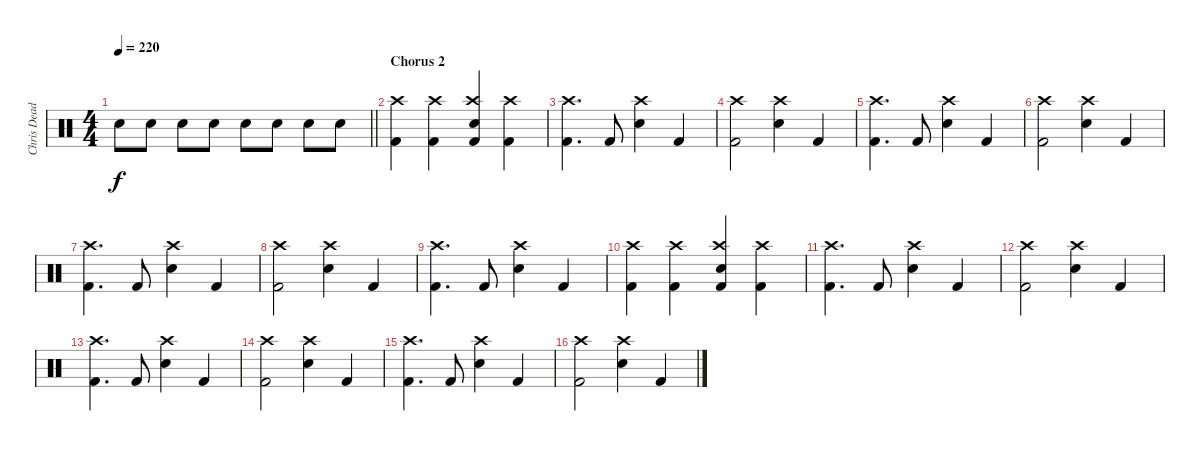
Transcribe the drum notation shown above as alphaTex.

\track ("Chris Dead" "Chris Dead") {instrument percussion}
\staff {score}
\articulation defaults
\ts (4 4)
\tempo 220
\clef neutral
\barLineRight lightlight
\ks c "Electric Snare (hit)".8{dy f} "Electric Snare (hit)".8 "Electric Snare (hit)".8 "Electric Snare (hit)".8 "Electric Snare (hit)".8 "Electric Snare (hit)".8 "Electric Snare (hit)".8 "Electric Snare (hit)".8
|
\section ("" "Chorus 2")
("Crash high (hit)" "Kick (hit) 2").4 ("Crash high (hit)" "Kick (hit) 2").4 ("Crash high (hit)" "Electric Snare (hit)" "Kick (hit) 2").4 ("Crash high (hit)" "Kick (hit) 2").4 |
("Crash high (hit)" "Kick (hit) 2").4{d} "Kick (hit) 2".8 ("Crash high (hit)" "Electric Snare (hit)").4 "Kick (hit) 2".4 |
("Crash high (hit)" "Kick (hit) 2").2 ("Crash high (hit)" "Electric Snare (hit)").4 "Kick (hit) 2".4 |
("Crash high (hit)" "Kick (hit) 2").4{d} "Kick (hit) 2".8 ("Crash high (hit)" "Electric Snare (hit)").4 "Kick (hit) 2".4 |
("Crash high (hit)" "Kick (hit) 2").2 ("Crash high (hit)" "Electric Snare (hit)").4 "Kick (hit) 2".4 |
("Crash high (hit)" "Kick (hit) 2").4{d} "Kick (hit) 2".8 ("Crash high (hit)" "Electric Snare (hit)").4 "Kick (hit) 2".4 |
("Crash high (hit)" "Kick (hit) 2").2 ("Crash high (hit)" "Electric Snare (hit)").4 "Kick (hit) 2".4 |
("Crash high (hit)" "Kick (hit) 2").4{d} "Kick (hit) 2".8 ("Crash high (hit)" "Electric Snare (hit)").4 "Kick (hit) 2".4 |
("Crash high (hit)" "Kick (hit) 2").4 ("Crash high (hit)" "Kick (hit) 2").4 ("Crash high (hit)" "Electric Snare (hit)" "Kick (hit) 2").4 ("Crash high (hit)" "Kick (hit) 2").4 |
("Crash high (hit)" "Kick (hit) 2").4{d} "Kick (hit) 2".8 ("Crash high (hit)" "Electric Snare (hit)").4 "Kick (hit) 2".4 |
("Crash high (hit)" "Kick (hit) 2").2 ("Crash high (hit)" "Electric Snare (hit)").4 "Kick (hit) 2".4 |
("Crash high (hit)" "Kick (hit) 2").4{d} "Kick (hit) 2".8 ("Crash high (hit)" "Electric Snare (hit)").4 "Kick (hit) 2".4 |
("Crash high (hit)" "Kick (hit) 2").2 ("Crash high (hit)" "Electric Snare (hit)").4 "Kick (hit) 2".4 |
("Crash high (hit)" "Kick (hit) 2").4{d} "Kick (hit) 2".8 ("Crash high (hit)" "Electric Snare (hit)").4 "Kick (hit) 2".4 |
("Crash high (hit)" "Kick (hit) 2").2 ("Crash high (hit)" "Electric Snare (hit)").4 "Kick (hit) 2".4
